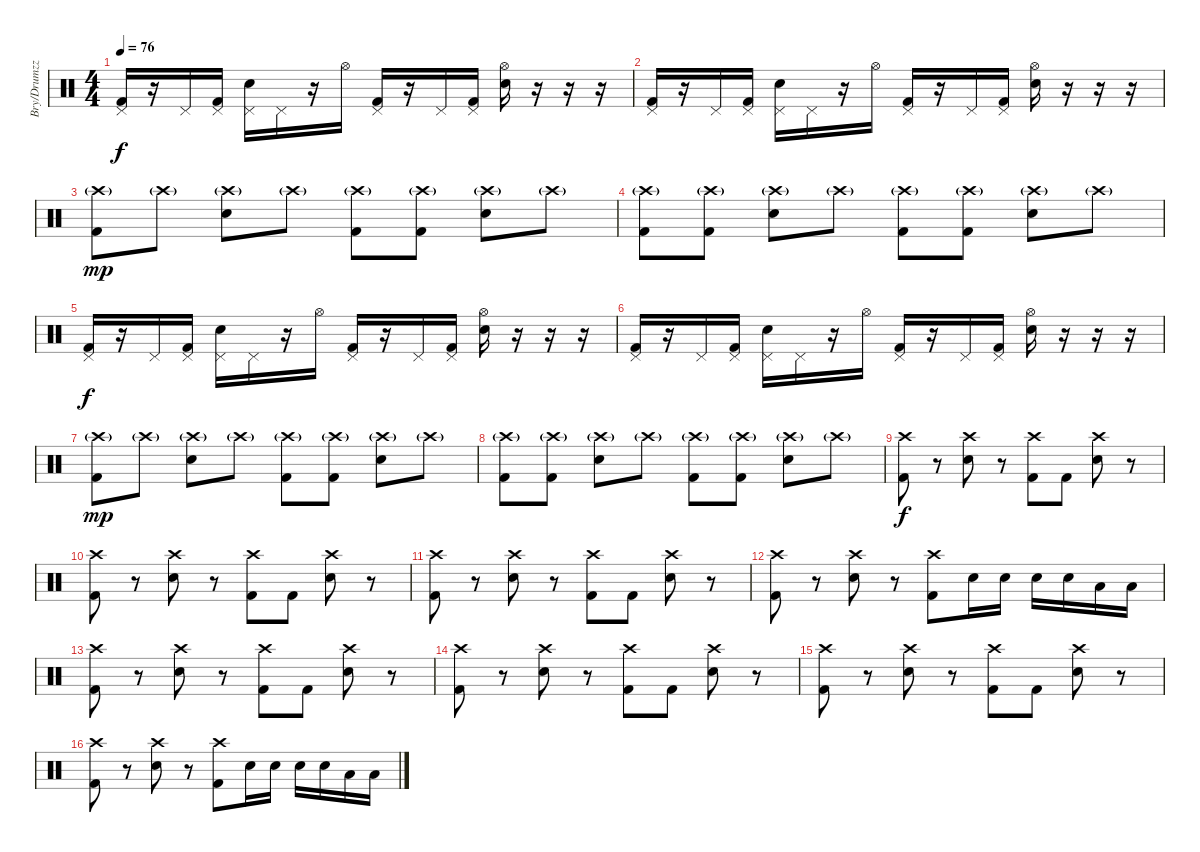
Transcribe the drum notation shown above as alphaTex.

\track ("Bry/Drumzzz" "Bry/Drumzz") {instrument percussion}
\staff {score}
\articulation defaults
\ts (4 4)
\tempo 76
\clef neutral
\ks c
("Pedal Hi-Hat (hit)" "Kick (hit) 2").16{dy f} r.16 "Pedal Hi-Hat (hit)".16 ("Pedal Hi-Hat (hit)" "Kick (hit) 2").16 ("Pedal Hi-Hat (hit)" "Snare (hit) 2").16 "Pedal Hi-Hat (hit)".16 r.16 "Hi-Hat (open)".16 ("Pedal Hi-Hat (hit)" "Kick (hit) 2").16 r.16 "Pedal Hi-Hat (hit)".16 ("Pedal Hi-Hat (hit)" "Kick (hit) 2").16 ("Hi-Hat (open)" "Snare (hit) 2").16 r.16 r.16 r.16 |
("Pedal Hi-Hat (hit)" "Kick (hit) 2").16 r.16 "Pedal Hi-Hat (hit)".16 ("Pedal Hi-Hat (hit)" "Kick (hit) 2").16 ("Pedal Hi-Hat (hit)" "Snare (hit) 2").16 "Pedal Hi-Hat (hit)".16 r.16 "Hi-Hat (open)".16 ("Pedal Hi-Hat (hit)" "Kick (hit) 2").16 r.16 "Pedal Hi-Hat (hit)".16 ("Pedal Hi-Hat (hit)" "Kick (hit) 2").16 ("Hi-Hat (open)" "Snare (hit) 2").16 r.16 r.16 r.16 |
("Crash high (hit)"{g} "Kick (hit) 2").8{dy mp} "Crash high (hit)"{g}.8 ("Crash high (hit)"{g} "Snare (hit) 2").8 "Crash high (hit)"{g}.8 ("Crash high (hit)"{g} "Kick (hit) 2").8 ("Crash high (hit)"{g} "Kick (hit) 2").8 ("Crash high (hit)"{g} "Snare (hit) 2").8 "Crash high (hit)"{g}.8 |
("Crash high (hit)"{g} "Kick (hit) 2").8 ("Crash high (hit)"{g} "Kick (hit) 2").8 ("Crash high (hit)"{g} "Snare (hit) 2").8 "Crash high (hit)"{g}.8 ("Crash high (hit)"{g} "Kick (hit) 2").8 ("Crash high (hit)"{g} "Kick (hit) 2").8 ("Crash high (hit)"{g} "Snare (hit) 2").8 "Crash high (hit)"{g}.8 |
("Pedal Hi-Hat (hit)" "Kick (hit) 2").16{dy f} r.16 "Pedal Hi-Hat (hit)".16 ("Pedal Hi-Hat (hit)" "Kick (hit) 2").16 ("Pedal Hi-Hat (hit)" "Snare (hit) 2").16 "Pedal Hi-Hat (hit)".16 r.16 "Hi-Hat (open)".16 ("Pedal Hi-Hat (hit)" "Kick (hit) 2").16 r.16 "Pedal Hi-Hat (hit)".16 ("Pedal Hi-Hat (hit)" "Kick (hit) 2").16 ("Hi-Hat (open)" "Snare (hit) 2").16 r.16 r.16 r.16 |
("Pedal Hi-Hat (hit)" "Kick (hit) 2").16 r.16 "Pedal Hi-Hat (hit)".16 ("Pedal Hi-Hat (hit)" "Kick (hit) 2").16 ("Pedal Hi-Hat (hit)" "Snare (hit) 2").16 "Pedal Hi-Hat (hit)".16 r.16 "Hi-Hat (open)".16 ("Pedal Hi-Hat (hit)" "Kick (hit) 2").16 r.16 "Pedal Hi-Hat (hit)".16 ("Pedal Hi-Hat (hit)" "Kick (hit) 2").16 ("Hi-Hat (open)" "Snare (hit) 2").16 r.16 r.16 r.16 |
("Crash high (hit)"{g} "Kick (hit) 2").8{dy mp} "Crash high (hit)"{g}.8 ("Crash high (hit)"{g} "Snare (hit) 2").8 "Crash high (hit)"{g}.8 ("Crash high (hit)"{g} "Kick (hit) 2").8 ("Crash high (hit)"{g} "Kick (hit) 2").8 ("Crash high (hit)"{g} "Snare (hit) 2").8 "Crash high (hit)"{g}.8 |
("Crash high (hit)"{g} "Kick (hit) 2").8 ("Crash high (hit)"{g} "Kick (hit) 2").8 ("Crash high (hit)"{g} "Snare (hit) 2").8 "Crash high (hit)"{g}.8 ("Crash high (hit)"{g} "Kick (hit) 2").8 ("Crash high (hit)"{g} "Kick (hit) 2").8 ("Crash high (hit)"{g} "Snare (hit) 2").8 "Crash high (hit)"{g}.8 |
("Crash high (hit)" "Kick (hit) 2").8{dy f} r.8 ("Crash high (hit)" "Snare (hit) 2").8 r.8 ("Crash high (hit)" "Kick (hit) 2").8 "Kick (hit) 2".8 ("Crash high (hit)" "Snare (hit) 2").8 r.8 |
("Crash high (hit)" "Kick (hit) 2").8 r.8 ("Crash high (hit)" "Snare (hit) 2").8 r.8 ("Crash high (hit)" "Kick (hit) 2").8 "Kick (hit) 2".8 ("Crash high (hit)" "Snare (hit) 2").8 r.8 |
("Crash high (hit)" "Kick (hit) 2").8 r.8 ("Crash high (hit)" "Snare (hit) 2").8 r.8 ("Crash high (hit)" "Kick (hit) 2").8 "Kick (hit) 2".8 ("Crash high (hit)" "Snare (hit) 2").8 r.8 |
("Crash high (hit)" "Kick (hit) 2").8 r.8 ("Crash high (hit)" "Snare (hit) 2").8 r.8 ("Crash high (hit)" "Kick (hit) 2").8 "Snare (hit) 2".16 "Snare (hit) 2".16 "Snare (hit) 2".16 "Snare (hit) 2".16 "Low Floor Tom (hit)".16 "Low Floor Tom (hit)".16 |
("Crash high (hit)" "Kick (hit) 2").8 r.8 ("Crash high (hit)" "Snare (hit) 2").8 r.8 ("Crash high (hit)" "Kick (hit) 2").8 "Kick (hit) 2".8 ("Crash high (hit)" "Snare (hit) 2").8 r.8 |
("Crash high (hit)" "Kick (hit) 2").8 r.8 ("Crash high (hit)" "Snare (hit) 2").8 r.8 ("Crash high (hit)" "Kick (hit) 2").8 "Kick (hit) 2".8 ("Crash high (hit)" "Snare (hit) 2").8 r.8 |
("Crash high (hit)" "Kick (hit) 2").8 r.8 ("Crash high (hit)" "Snare (hit) 2").8 r.8 ("Crash high (hit)" "Kick (hit) 2").8 "Kick (hit) 2".8 ("Crash high (hit)" "Snare (hit) 2").8 r.8 |
("Crash high (hit)" "Kick (hit) 2").8 r.8 ("Crash high (hit)" "Snare (hit) 2").8 r.8 ("Crash high (hit)" "Kick (hit) 2").8 "Snare (hit) 2".16 "Snare (hit) 2".16 "Snare (hit) 2".16 "Snare (hit) 2".16 "Low Floor Tom (hit)".16 "Low Floor Tom (hit)".16
